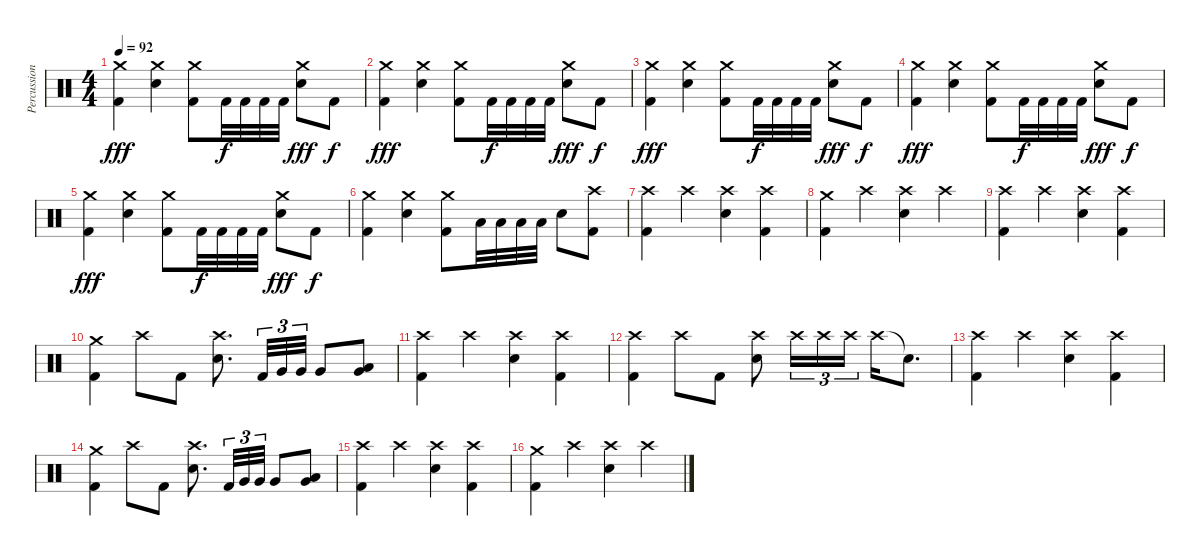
\track ("Percussion" "Percussion") {instrument percussion}
\staff {score}
\articulation defaults
\ts (4 4)
\tempo 92
\clef neutral
\ks c
("Crash medium (hit)" "Kick (hit) 2").4{dy fff} ("Crash medium (hit)" "Electric Snare (hit)").4 ("Crash medium (hit)" "Kick (hit) 2").8 "Kick (hit) 2".32{dy f} "Kick (hit) 2".32 "Kick (hit) 2".32 "Kick (hit) 2".32 ("Crash medium (hit)" "Electric Snare (hit)").8{dy fff} "Kick (hit) 2".8{dy f} |
("Crash medium (hit)" "Kick (hit) 2").4{dy fff} ("Crash medium (hit)" "Electric Snare (hit)").4 ("Crash medium (hit)" "Kick (hit) 2").8 "Kick (hit) 2".32{dy f} "Kick (hit) 2".32 "Kick (hit) 2".32 "Kick (hit) 2".32 ("Crash medium (hit)" "Electric Snare (hit)").8{dy fff} "Kick (hit) 2".8{dy f} |
("Crash medium (hit)" "Kick (hit) 2").4{dy fff} ("Crash medium (hit)" "Electric Snare (hit)").4 ("Crash medium (hit)" "Kick (hit) 2").8 "Kick (hit) 2".32{dy f} "Kick (hit) 2".32 "Kick (hit) 2".32 "Kick (hit) 2".32 ("Crash medium (hit)" "Electric Snare (hit)").8{dy fff} "Kick (hit) 2".8{dy f} |
("Crash medium (hit)" "Kick (hit) 2").4{dy fff} ("Crash medium (hit)" "Electric Snare (hit)").4 ("Crash medium (hit)" "Kick (hit) 2").8 "Kick (hit) 2".32{dy f} "Kick (hit) 2".32 "Kick (hit) 2".32 "Kick (hit) 2".32 ("Crash medium (hit)" "Electric Snare (hit)").8{dy fff} "Kick (hit) 2".8{dy f} |
("Crash medium (hit)" "Kick (hit) 2").4{dy fff} ("Crash medium (hit)" "Electric Snare (hit)").4 ("Crash medium (hit)" "Kick (hit) 2").8 "Kick (hit) 2".32{dy f} "Kick (hit) 2".32 "Kick (hit) 2".32 "Kick (hit) 2".32 ("Crash medium (hit)" "Electric Snare (hit)").8{dy fff} "Kick (hit) 2".8{dy f} |
("Crash medium (hit)" "Kick (hit) 2").4 ("Crash medium (hit)" "Electric Snare (hit)").4 ("Crash medium (hit)" "Kick (hit) 2").8 "Low Floor Tom (hit)".32 "Low Floor Tom (hit)".32 "Low Floor Tom (hit)".32 "Low Floor Tom (hit)".32 "Electric Snare (hit)".8 ("Crash high (hit)" "Kick (hit) 2").8 |
("Crash high (hit)" "Kick (hit) 2").4 "Crash high (hit)".4 ("Crash high (hit)" "Electric Snare (hit)").4 ("Crash high (hit)" "Kick (hit) 2").4 |
("Crash medium (hit)" "Kick (hit) 2").4 "Crash high (hit)".4 ("Crash high (hit)" "Electric Snare (hit)").4 "Crash high (hit)".4 |
("Crash high (hit)" "Kick (hit) 2").4 "Crash high (hit)".4 ("Crash high (hit)" "Electric Snare (hit)").4 ("Crash high (hit)" "Kick (hit) 2").4 |
("Crash medium (hit)" "Kick (hit) 2").4 "Crash high (hit)".8 "Kick (hit) 2".8 ("Crash high (hit)" "Electric Snare (hit)").8{d} "Kick (hit) 2".32{tu (3 2)} "Very Low Tom (hit)".32{tu (3 2)} "Very Low Tom (hit)".32{tu (3 2)} "Very Low Tom (hit)".8 ("Low Tom (hit)" "Very Low Tom (hit)").8 |
("Crash high (hit)" "Kick (hit) 2").4 "Crash high (hit)".4 ("Crash high (hit)" "Electric Snare (hit)").4 ("Kick (hit) 2" "Crash high (hit)").4 |
("Crash high (hit)" "Kick (hit) 2").4 "Crash high (hit)".8 "Kick (hit) 2".8 ("Crash high (hit)" "Electric Snare (hit)").8 "Crash high (hit)".16{tu (3 2)} "Crash high (hit)".16{tu (3 2)} "Crash high (hit)".16{tu (3 2)} "Crash high (hit)".16 "Snare (hit)"{t}.8{d} |
("Crash high (hit)" "Kick (hit) 2").4 "Crash high (hit)".4 ("Crash high (hit)" "Electric Snare (hit)").4 ("Crash high (hit)" "Kick (hit) 2").4 |
("Crash medium (hit)" "Kick (hit) 2").4 "Crash high (hit)".8 "Kick (hit) 2".8 ("Crash high (hit)" "Electric Snare (hit)").8{d} "Kick (hit) 2".32{tu (3 2)} "Very Low Tom (hit)".32{tu (3 2)} "Very Low Tom (hit)".32{tu (3 2)} "Very Low Tom (hit)".8 ("Low Tom (hit)" "Very Low Tom (hit)").8 |
("Crash high (hit)" "Kick (hit) 2").4 "Crash high (hit)".4 ("Crash high (hit)" "Electric Snare (hit)").4 ("Crash high (hit)" "Kick (hit) 2").4 |
("Crash medium (hit)" "Kick (hit) 2").4 "Crash high (hit)".4 ("Crash high (hit)" "Electric Snare (hit)").4 "Crash high (hit)".4
